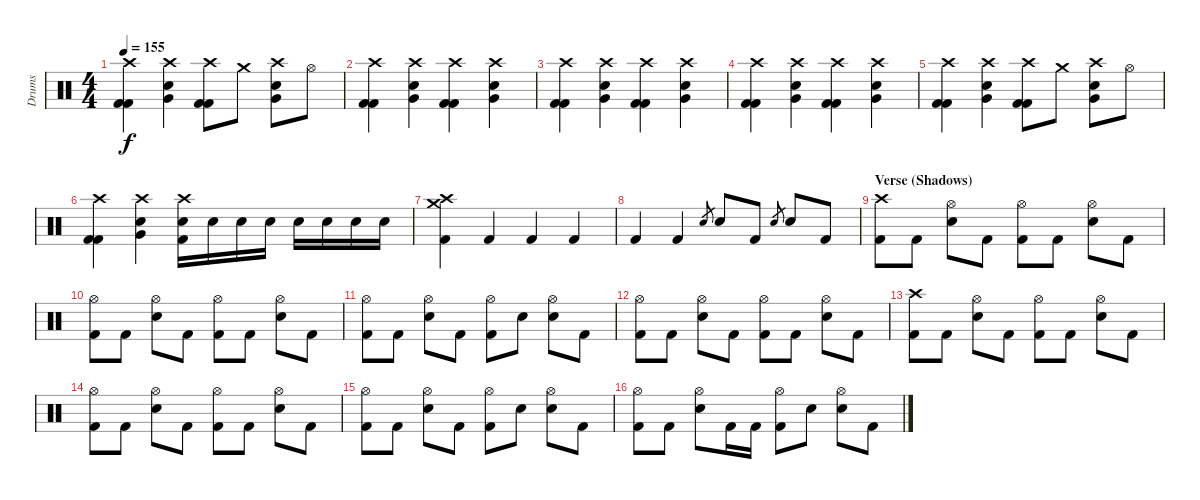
\track ("Drums" "Drums") {instrument percussion}
\staff {score}
\articulation defaults
\ts (4 4)
\tempo 155
\clef neutral
\ks c
("Crash high (hit)" "Kick (hit) 2" "Kick (hit) 2").4{dy f} ("Crash high (hit)" "Very Low Tom (hit)" "Electric Snare (hit)").4 ("Crash high (hit)" "Kick (hit) 2" "Kick (hit) 2").8 "Crash medium (hit)".8 ("Crash high (hit)" "Very Low Tom (hit)" "Electric Snare (hit)").8 "Hi-Hat (open)".8 |
("Crash high (hit)" "Kick (hit) 2" "Kick (hit) 2").4 ("Crash high (hit)" "Very Low Tom (hit)" "Electric Snare (hit)").4 ("Crash high (hit)" "Kick (hit) 2" "Kick (hit) 2").4 ("Crash high (hit)" "Very Low Tom (hit)" "Electric Snare (hit)").4 |
("Crash high (hit)" "Kick (hit) 2" "Kick (hit) 2").4 ("Crash high (hit)" "Very Low Tom (hit)" "Electric Snare (hit)").4 ("Crash high (hit)" "Kick (hit) 2" "Kick (hit) 2").4 ("Crash high (hit)" "Very Low Tom (hit)" "Electric Snare (hit)").4 |
("Crash high (hit)" "Kick (hit) 2" "Kick (hit) 2").4 ("Crash high (hit)" "Very Low Tom (hit)" "Electric Snare (hit)").4 ("Crash high (hit)" "Kick (hit) 2" "Kick (hit) 2").4 ("Crash high (hit)" "Very Low Tom (hit)" "Electric Snare (hit)").4 |
("Crash high (hit)" "Kick (hit) 2" "Kick (hit) 2").4 ("Crash high (hit)" "Very Low Tom (hit)" "Electric Snare (hit)").4 ("Crash high (hit)" "Kick (hit) 2" "Kick (hit) 2").8 "Crash medium (hit)".8 ("Crash high (hit)" "Very Low Tom (hit)" "Electric Snare (hit)").8 "Hi-Hat (open)".8 |
("Crash high (hit)" "Kick (hit) 2" "Kick (hit) 2").4 ("Crash high (hit)" "Very Low Tom (hit)" "Electric Snare (hit)").4 ("Crash high (hit)" "Electric Snare (hit)" "Kick (hit) 2").16 "Electric Snare (hit)".16 "Electric Snare (hit)".16 "Electric Snare (hit)".16 "Electric Snare (hit)".16 "Electric Snare (hit)".16 "Electric Snare (hit)".16 "Electric Snare (hit)".16 |
("Crash high (hit)" "Crash medium (hit)" "Kick (hit) 2").4 "Kick (hit) 2".4 "Kick (hit) 2".4 "Kick (hit) 2".4 |
"Kick (hit) 2".4 "Kick (hit) 2".4 "Electric Snare (hit)".8{gr} "Electric Snare (hit)".8 "Kick (hit) 2".8 "Electric Snare (hit)".8{gr} "Electric Snare (hit)".8 "Kick (hit) 2".8 |
\section ("" "Verse (Shadows)")
("Crash high (hit)" "Kick (hit) 2").8 "Kick (hit) 2".8 ("Hi-Hat (open)" "Electric Snare (hit)").8 "Kick (hit) 2".8 ("Hi-Hat (open)" "Kick (hit) 2").8 "Kick (hit) 2".8 ("Hi-Hat (open)" "Electric Snare (hit)").8 "Kick (hit) 2".8 |
("Hi-Hat (open)" "Kick (hit) 2").8 "Kick (hit) 2".8 ("Hi-Hat (open)" "Electric Snare (hit)").8 "Kick (hit) 2".8 ("Hi-Hat (open)" "Kick (hit) 2").8 "Kick (hit) 2".8 ("Hi-Hat (open)" "Electric Snare (hit)").8 "Kick (hit) 2".8 |
("Hi-Hat (open)" "Kick (hit) 2").8 "Kick (hit) 2".8 ("Hi-Hat (open)" "Electric Snare (hit)").8 "Kick (hit) 2".8 ("Hi-Hat (open)" "Kick (hit) 2").8 "Electric Snare (hit)".8 ("Hi-Hat (open)" "Electric Snare (hit)").8 "Kick (hit) 2".8 |
("Hi-Hat (open)" "Kick (hit) 2").8 "Kick (hit) 2".8 ("Hi-Hat (open)" "Electric Snare (hit)").8 "Kick (hit) 2".8 ("Hi-Hat (open)" "Kick (hit) 2").8 "Kick (hit) 2".8 ("Hi-Hat (open)" "Electric Snare (hit)").8 "Kick (hit) 2".8 |
("Crash high (hit)" "Kick (hit) 2").8 "Kick (hit) 2".8 ("Hi-Hat (open)" "Electric Snare (hit)").8 "Kick (hit) 2".8 ("Hi-Hat (open)" "Kick (hit) 2").8 "Kick (hit) 2".8 ("Hi-Hat (open)" "Electric Snare (hit)").8 "Kick (hit) 2".8 |
("Hi-Hat (open)" "Kick (hit) 2").8 "Kick (hit) 2".8 ("Hi-Hat (open)" "Electric Snare (hit)").8 "Kick (hit) 2".8 ("Hi-Hat (open)" "Kick (hit) 2").8 "Kick (hit) 2".8 ("Hi-Hat (open)" "Electric Snare (hit)").8 "Kick (hit) 2".8 |
("Hi-Hat (open)" "Kick (hit) 2").8 "Kick (hit) 2".8 ("Hi-Hat (open)" "Electric Snare (hit)").8 "Kick (hit) 2".8 ("Hi-Hat (open)" "Kick (hit) 2").8 "Electric Snare (hit)".8 ("Hi-Hat (open)" "Electric Snare (hit)").8 "Kick (hit) 2".8 |
("Hi-Hat (open)" "Kick (hit) 2").8 "Kick (hit) 2".8 ("Hi-Hat (open)" "Electric Snare (hit)").8 "Kick (hit) 2".16 "Kick (hit) 2".16 ("Hi-Hat (open)" "Kick (hit) 2").8 "Electric Snare (hit)".8 ("Hi-Hat (open)" "Electric Snare (hit)").8 "Kick (hit) 2".8
